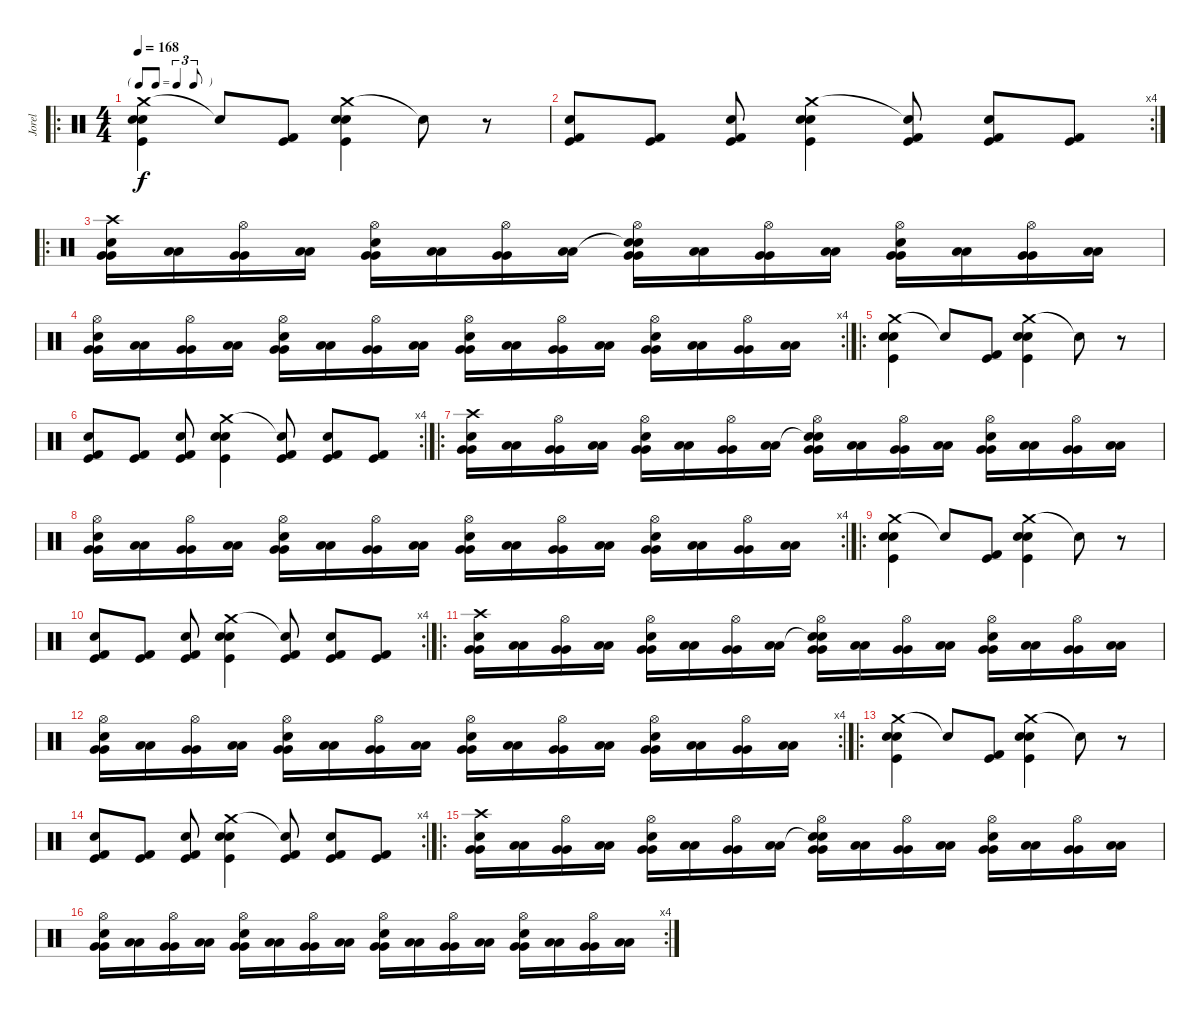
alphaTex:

\track ("Jorel" "Jorel") {instrument percussion}
\staff {score}
\articulation defaults
\ro
\ts (4 4)
\tf triplet8th
\tempo 168
\clef neutral
\ks c
("Crash medium (hit)" "Electric Snare (hit)" "Snare (hit) 2" "Kick (hit)").4{dy f} "Snare (hit)"{t}.8 ("Kick (hit)" "Kick (hit) 2").8 ("Crash medium (hit)" "Electric Snare (hit)" "Snare (hit) 2" "Kick (hit)").4 "Snare (hit)"{t}.8 r.8 |
\rc 4
("Kick (hit) 2" "Electric Snare (hit)" "Kick (hit)").8 ("Kick (hit)" "Kick (hit) 2").8 ("Kick (hit) 2" "Electric Snare (hit)" "Kick (hit)").8 ("Crash medium (hit)" "Electric Snare (hit)" "Kick (hit)" "Snare (hit) 2").4 ("Snare (hit)"{t} "Kick (hit)" "Kick (hit) 2").8 ("Kick (hit)" "Kick (hit) 2" "Electric Snare (hit)").8 ("Kick (hit)" "Kick (hit) 2").8 |
\ro
("Crash high (hit)" "Electric Snare (hit)" "Very Low Tom (hit)" "Very Low Tom (hit)").16 ("Low Floor Tom (hit)" "Low Floor Tom (hit)").16 ("Hi-Hat (open)" "Very Low Tom (hit)" "Very Low Tom (hit)").16 ("Low Floor Tom (hit)" "Low Floor Tom (hit)").16 ("Hi-Hat (open)" "Electric Snare (hit)" "Very Low Tom (hit)" "Very Low Tom (hit)").16 ("Low Floor Tom (hit)" "Low Floor Tom (hit)").16 ("Hi-Hat (open)" "Very Low Tom (hit)" "Very Low Tom (hit)").16 ("Low Floor Tom (hit)" "Low Floor Tom (hit)").16 ("Snare (hit)"{t} "Hi-Hat (open)" "Electric Snare (hit)" "Very Low Tom (hit)" "Very Low Tom (hit)").16 ("Low Floor Tom (hit)" "Low Floor Tom (hit)").16 ("Hi-Hat (open)" "Very Low Tom (hit)" "Very Low Tom (hit)").16 ("Low Floor Tom (hit)" "Low Floor Tom (hit)").16 ("Hi-Hat (open)" "Electric Snare (hit)" "Very Low Tom (hit)" "Very Low Tom (hit)").16 ("Low Floor Tom (hit)" "Low Floor Tom (hit)").16 ("Hi-Hat (open)" "Very Low Tom (hit)" "Very Low Tom (hit)").16 ("Low Floor Tom (hit)" "Low Floor Tom (hit)").16 |
\rc 4
("Hi-Hat (open)" "Electric Snare (hit)" "Very Low Tom (hit)" "Very Low Tom (hit)").16 ("Low Floor Tom (hit)" "Low Floor Tom (hit)").16 ("Hi-Hat (open)" "Very Low Tom (hit)" "Very Low Tom (hit)").16 ("Low Floor Tom (hit)" "Low Floor Tom (hit)").16 ("Hi-Hat (open)" "Electric Snare (hit)" "Very Low Tom (hit)" "Very Low Tom (hit)").16 ("Low Floor Tom (hit)" "Low Floor Tom (hit)").16 ("Hi-Hat (open)" "Very Low Tom (hit)" "Very Low Tom (hit)").16 ("Low Floor Tom (hit)" "Low Floor Tom (hit)").16 ("Hi-Hat (open)" "Electric Snare (hit)" "Very Low Tom (hit)" "Very Low Tom (hit)").16 ("Low Floor Tom (hit)" "Low Floor Tom (hit)").16 ("Hi-Hat (open)" "Very Low Tom (hit)" "Very Low Tom (hit)").16 ("Low Floor Tom (hit)" "Low Floor Tom (hit)").16 ("Hi-Hat (open)" "Electric Snare (hit)" "Very Low Tom (hit)" "Very Low Tom (hit)").16 ("Low Floor Tom (hit)" "Low Floor Tom (hit)").16 ("Hi-Hat (open)" "Very Low Tom (hit)" "Very Low Tom (hit)").16 ("Low Floor Tom (hit)" "Low Floor Tom (hit)").16 |
\ro
("Crash medium (hit)" "Electric Snare (hit)" "Snare (hit) 2" "Kick (hit)").4 "Snare (hit)"{t}.8 ("Kick (hit)" "Kick (hit) 2").8 ("Crash medium (hit)" "Electric Snare (hit)" "Snare (hit) 2" "Kick (hit)").4 "Snare (hit)"{t}.8 r.8 |
\rc 4
("Kick (hit) 2" "Electric Snare (hit)" "Kick (hit)").8 ("Kick (hit)" "Kick (hit) 2").8 ("Kick (hit) 2" "Electric Snare (hit)" "Kick (hit)").8 ("Crash medium (hit)" "Electric Snare (hit)" "Kick (hit)" "Snare (hit) 2").4 ("Snare (hit)"{t} "Kick (hit)" "Kick (hit) 2").8 ("Kick (hit)" "Kick (hit) 2" "Electric Snare (hit)").8 ("Kick (hit)" "Kick (hit) 2").8 |
\ro
("Crash high (hit)" "Electric Snare (hit)" "Very Low Tom (hit)" "Very Low Tom (hit)").16 ("Low Floor Tom (hit)" "Low Floor Tom (hit)").16 ("Hi-Hat (open)" "Very Low Tom (hit)" "Very Low Tom (hit)").16 ("Low Floor Tom (hit)" "Low Floor Tom (hit)").16 ("Hi-Hat (open)" "Electric Snare (hit)" "Very Low Tom (hit)" "Very Low Tom (hit)").16 ("Low Floor Tom (hit)" "Low Floor Tom (hit)").16 ("Hi-Hat (open)" "Very Low Tom (hit)" "Very Low Tom (hit)").16 ("Low Floor Tom (hit)" "Low Floor Tom (hit)").16 ("Snare (hit)"{t} "Hi-Hat (open)" "Electric Snare (hit)" "Very Low Tom (hit)" "Very Low Tom (hit)").16 ("Low Floor Tom (hit)" "Low Floor Tom (hit)").16 ("Hi-Hat (open)" "Very Low Tom (hit)" "Very Low Tom (hit)").16 ("Low Floor Tom (hit)" "Low Floor Tom (hit)").16 ("Hi-Hat (open)" "Electric Snare (hit)" "Very Low Tom (hit)" "Very Low Tom (hit)").16 ("Low Floor Tom (hit)" "Low Floor Tom (hit)").16 ("Hi-Hat (open)" "Very Low Tom (hit)" "Very Low Tom (hit)").16 ("Low Floor Tom (hit)" "Low Floor Tom (hit)").16 |
\rc 4
("Hi-Hat (open)" "Electric Snare (hit)" "Very Low Tom (hit)" "Very Low Tom (hit)").16 ("Low Floor Tom (hit)" "Low Floor Tom (hit)").16 ("Hi-Hat (open)" "Very Low Tom (hit)" "Very Low Tom (hit)").16 ("Low Floor Tom (hit)" "Low Floor Tom (hit)").16 ("Hi-Hat (open)" "Electric Snare (hit)" "Very Low Tom (hit)" "Very Low Tom (hit)").16 ("Low Floor Tom (hit)" "Low Floor Tom (hit)").16 ("Hi-Hat (open)" "Very Low Tom (hit)" "Very Low Tom (hit)").16 ("Low Floor Tom (hit)" "Low Floor Tom (hit)").16 ("Hi-Hat (open)" "Electric Snare (hit)" "Very Low Tom (hit)" "Very Low Tom (hit)").16 ("Low Floor Tom (hit)" "Low Floor Tom (hit)").16 ("Hi-Hat (open)" "Very Low Tom (hit)" "Very Low Tom (hit)").16 ("Low Floor Tom (hit)" "Low Floor Tom (hit)").16 ("Hi-Hat (open)" "Electric Snare (hit)" "Very Low Tom (hit)" "Very Low Tom (hit)").16 ("Low Floor Tom (hit)" "Low Floor Tom (hit)").16 ("Hi-Hat (open)" "Very Low Tom (hit)" "Very Low Tom (hit)").16 ("Low Floor Tom (hit)" "Low Floor Tom (hit)").16 |
\ro
("Crash medium (hit)" "Electric Snare (hit)" "Snare (hit) 2" "Kick (hit)").4 "Snare (hit)"{t}.8 ("Kick (hit)" "Kick (hit) 2").8 ("Crash medium (hit)" "Electric Snare (hit)" "Snare (hit) 2" "Kick (hit)").4 "Snare (hit)"{t}.8 r.8 |
\rc 4
("Kick (hit) 2" "Electric Snare (hit)" "Kick (hit)").8 ("Kick (hit)" "Kick (hit) 2").8 ("Kick (hit) 2" "Electric Snare (hit)" "Kick (hit)").8 ("Crash medium (hit)" "Electric Snare (hit)" "Kick (hit)" "Snare (hit) 2").4 ("Snare (hit)"{t} "Kick (hit)" "Kick (hit) 2").8 ("Kick (hit)" "Kick (hit) 2" "Electric Snare (hit)").8 ("Kick (hit)" "Kick (hit) 2").8 |
\ro
("Crash high (hit)" "Electric Snare (hit)" "Very Low Tom (hit)" "Very Low Tom (hit)").16 ("Low Floor Tom (hit)" "Low Floor Tom (hit)").16 ("Hi-Hat (open)" "Very Low Tom (hit)" "Very Low Tom (hit)").16 ("Low Floor Tom (hit)" "Low Floor Tom (hit)").16 ("Hi-Hat (open)" "Electric Snare (hit)" "Very Low Tom (hit)" "Very Low Tom (hit)").16 ("Low Floor Tom (hit)" "Low Floor Tom (hit)").16 ("Hi-Hat (open)" "Very Low Tom (hit)" "Very Low Tom (hit)").16 ("Low Floor Tom (hit)" "Low Floor Tom (hit)").16 ("Snare (hit)"{t} "Hi-Hat (open)" "Electric Snare (hit)" "Very Low Tom (hit)" "Very Low Tom (hit)").16 ("Low Floor Tom (hit)" "Low Floor Tom (hit)").16 ("Hi-Hat (open)" "Very Low Tom (hit)" "Very Low Tom (hit)").16 ("Low Floor Tom (hit)" "Low Floor Tom (hit)").16 ("Hi-Hat (open)" "Electric Snare (hit)" "Very Low Tom (hit)" "Very Low Tom (hit)").16 ("Low Floor Tom (hit)" "Low Floor Tom (hit)").16 ("Hi-Hat (open)" "Very Low Tom (hit)" "Very Low Tom (hit)").16 ("Low Floor Tom (hit)" "Low Floor Tom (hit)").16 |
\rc 4
("Hi-Hat (open)" "Electric Snare (hit)" "Very Low Tom (hit)" "Very Low Tom (hit)").16 ("Low Floor Tom (hit)" "Low Floor Tom (hit)").16 ("Hi-Hat (open)" "Very Low Tom (hit)" "Very Low Tom (hit)").16 ("Low Floor Tom (hit)" "Low Floor Tom (hit)").16 ("Hi-Hat (open)" "Electric Snare (hit)" "Very Low Tom (hit)" "Very Low Tom (hit)").16 ("Low Floor Tom (hit)" "Low Floor Tom (hit)").16 ("Hi-Hat (open)" "Very Low Tom (hit)" "Very Low Tom (hit)").16 ("Low Floor Tom (hit)" "Low Floor Tom (hit)").16 ("Hi-Hat (open)" "Electric Snare (hit)" "Very Low Tom (hit)" "Very Low Tom (hit)").16 ("Low Floor Tom (hit)" "Low Floor Tom (hit)").16 ("Hi-Hat (open)" "Very Low Tom (hit)" "Very Low Tom (hit)").16 ("Low Floor Tom (hit)" "Low Floor Tom (hit)").16 ("Hi-Hat (open)" "Electric Snare (hit)" "Very Low Tom (hit)" "Very Low Tom (hit)").16 ("Low Floor Tom (hit)" "Low Floor Tom (hit)").16 ("Hi-Hat (open)" "Very Low Tom (hit)" "Very Low Tom (hit)").16 ("Low Floor Tom (hit)" "Low Floor Tom (hit)").16 |
\ro
("Crash medium (hit)" "Electric Snare (hit)" "Snare (hit) 2" "Kick (hit)").4 "Snare (hit)"{t}.8 ("Kick (hit)" "Kick (hit) 2").8 ("Crash medium (hit)" "Electric Snare (hit)" "Snare (hit) 2" "Kick (hit)").4 "Snare (hit)"{t}.8 r.8 |
\rc 4
("Kick (hit) 2" "Electric Snare (hit)" "Kick (hit)").8 ("Kick (hit)" "Kick (hit) 2").8 ("Kick (hit) 2" "Electric Snare (hit)" "Kick (hit)").8 ("Crash medium (hit)" "Electric Snare (hit)" "Kick (hit)" "Snare (hit) 2").4 ("Snare (hit)"{t} "Kick (hit)" "Kick (hit) 2").8 ("Kick (hit)" "Kick (hit) 2" "Electric Snare (hit)").8 ("Kick (hit)" "Kick (hit) 2").8 |
\ro
("Crash high (hit)" "Electric Snare (hit)" "Very Low Tom (hit)" "Very Low Tom (hit)").16 ("Low Floor Tom (hit)" "Low Floor Tom (hit)").16 ("Hi-Hat (open)" "Very Low Tom (hit)" "Very Low Tom (hit)").16 ("Low Floor Tom (hit)" "Low Floor Tom (hit)").16 ("Hi-Hat (open)" "Electric Snare (hit)" "Very Low Tom (hit)" "Very Low Tom (hit)").16 ("Low Floor Tom (hit)" "Low Floor Tom (hit)").16 ("Hi-Hat (open)" "Very Low Tom (hit)" "Very Low Tom (hit)").16 ("Low Floor Tom (hit)" "Low Floor Tom (hit)").16 ("Snare (hit)"{t} "Hi-Hat (open)" "Electric Snare (hit)" "Very Low Tom (hit)" "Very Low Tom (hit)").16 ("Low Floor Tom (hit)" "Low Floor Tom (hit)").16 ("Hi-Hat (open)" "Very Low Tom (hit)" "Very Low Tom (hit)").16 ("Low Floor Tom (hit)" "Low Floor Tom (hit)").16 ("Hi-Hat (open)" "Electric Snare (hit)" "Very Low Tom (hit)" "Very Low Tom (hit)").16 ("Low Floor Tom (hit)" "Low Floor Tom (hit)").16 ("Hi-Hat (open)" "Very Low Tom (hit)" "Very Low Tom (hit)").16 ("Low Floor Tom (hit)" "Low Floor Tom (hit)").16 |
\rc 4
("Hi-Hat (open)" "Electric Snare (hit)" "Very Low Tom (hit)" "Very Low Tom (hit)").16 ("Low Floor Tom (hit)" "Low Floor Tom (hit)").16 ("Hi-Hat (open)" "Very Low Tom (hit)" "Very Low Tom (hit)").16 ("Low Floor Tom (hit)" "Low Floor Tom (hit)").16 ("Hi-Hat (open)" "Electric Snare (hit)" "Very Low Tom (hit)" "Very Low Tom (hit)").16 ("Low Floor Tom (hit)" "Low Floor Tom (hit)").16 ("Hi-Hat (open)" "Very Low Tom (hit)" "Very Low Tom (hit)").16 ("Low Floor Tom (hit)" "Low Floor Tom (hit)").16 ("Hi-Hat (open)" "Electric Snare (hit)" "Very Low Tom (hit)" "Very Low Tom (hit)").16 ("Low Floor Tom (hit)" "Low Floor Tom (hit)").16 ("Hi-Hat (open)" "Very Low Tom (hit)" "Very Low Tom (hit)").16 ("Low Floor Tom (hit)" "Low Floor Tom (hit)").16 ("Hi-Hat (open)" "Electric Snare (hit)" "Very Low Tom (hit)" "Very Low Tom (hit)").16 ("Low Floor Tom (hit)" "Low Floor Tom (hit)").16 ("Hi-Hat (open)" "Very Low Tom (hit)" "Very Low Tom (hit)").16 ("Low Floor Tom (hit)" "Low Floor Tom (hit)").16
